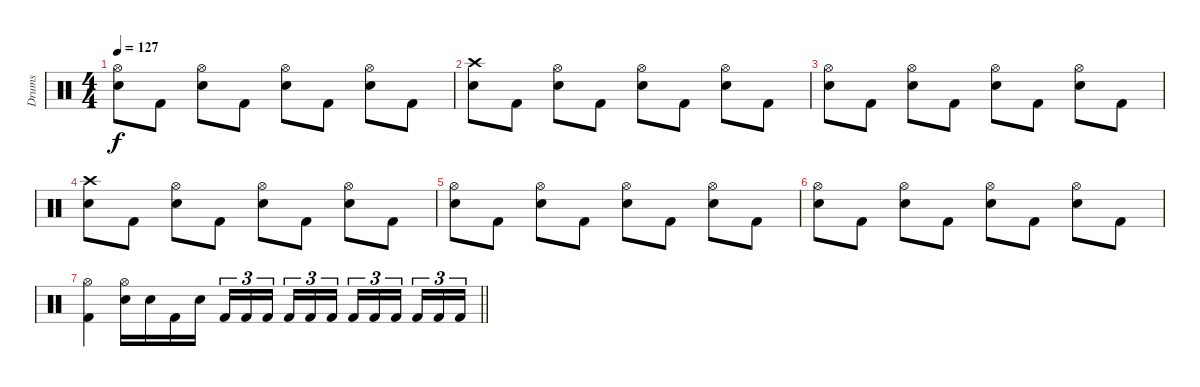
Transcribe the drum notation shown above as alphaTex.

\track ("Drums" "Drums") {instrument percussion}
\staff {score}
\articulation defaults
\ts (4 4)
\tempo 127
\clef neutral
\ks c
("Hi-Hat (open)" "Snare (hit) 2").8{dy f} "Kick (hit) 2".8 ("Hi-Hat (open)" "Snare (hit) 2").8 "Kick (hit) 2".8 ("Hi-Hat (open)" "Snare (hit) 2").8 "Kick (hit) 2".8 ("Hi-Hat (open)" "Snare (hit) 2").8 "Kick (hit) 2".8 |
("Crash high (hit)" "Snare (hit) 2").8 "Kick (hit) 2".8 ("Hi-Hat (open)" "Snare (hit) 2").8 "Kick (hit) 2".8 ("Hi-Hat (open)" "Snare (hit) 2").8 "Kick (hit) 2".8 ("Hi-Hat (open)" "Snare (hit) 2").8 "Kick (hit) 2".8 |
("Hi-Hat (open)" "Snare (hit) 2").8 "Kick (hit) 2".8 ("Hi-Hat (open)" "Snare (hit) 2").8 "Kick (hit) 2".8 ("Hi-Hat (open)" "Snare (hit) 2").8 "Kick (hit) 2".8 ("Hi-Hat (open)" "Snare (hit) 2").8 "Kick (hit) 2".8 |
("Crash high (hit)" "Snare (hit) 2").8 "Kick (hit) 2".8 ("Hi-Hat (open)" "Snare (hit) 2").8 "Kick (hit) 2".8 ("Hi-Hat (open)" "Snare (hit) 2").8 "Kick (hit) 2".8 ("Hi-Hat (open)" "Snare (hit) 2").8 "Kick (hit) 2".8 |
("Hi-Hat (open)" "Snare (hit) 2").8 "Kick (hit) 2".8 ("Hi-Hat (open)" "Snare (hit) 2").8 "Kick (hit) 2".8 ("Hi-Hat (open)" "Snare (hit) 2").8 "Kick (hit) 2".8 ("Hi-Hat (open)" "Snare (hit) 2").8 "Kick (hit) 2".8 |
("Hi-Hat (open)" "Snare (hit) 2").8 "Kick (hit) 2".8 ("Hi-Hat (open)" "Snare (hit) 2").8 "Kick (hit) 2".8 ("Hi-Hat (open)" "Snare (hit) 2").8 "Kick (hit) 2".8 ("Hi-Hat (open)" "Snare (hit) 2").8 "Kick (hit) 2".8 |
\barLineRight lightlight
("Hi-Hat (open)" "Kick (hit) 2").4 ("Hi-Hat (open)" "Snare (hit) 2").16 "Snare (hit) 2".16 "Kick (hit) 2".16 "Snare (hit) 2".16 "Kick (hit) 2".16{tu (3 2)} "Kick (hit) 2".16{tu (3 2)} "Kick (hit) 2".16{tu (3 2) beam splitsecondary} "Kick (hit) 2".16{tu (3 2)} "Kick (hit) 2".16{tu (3 2)} "Kick (hit) 2".16{tu (3 2)} "Kick (hit) 2".16{tu (3 2)} "Kick (hit) 2".16{tu (3 2)} "Kick (hit) 2".16{tu (3 2) beam splitsecondary} "Kick (hit) 2".16{tu (3 2)} "Kick (hit) 2".16{tu (3 2)} "Kick (hit) 2".16{tu (3 2)}
